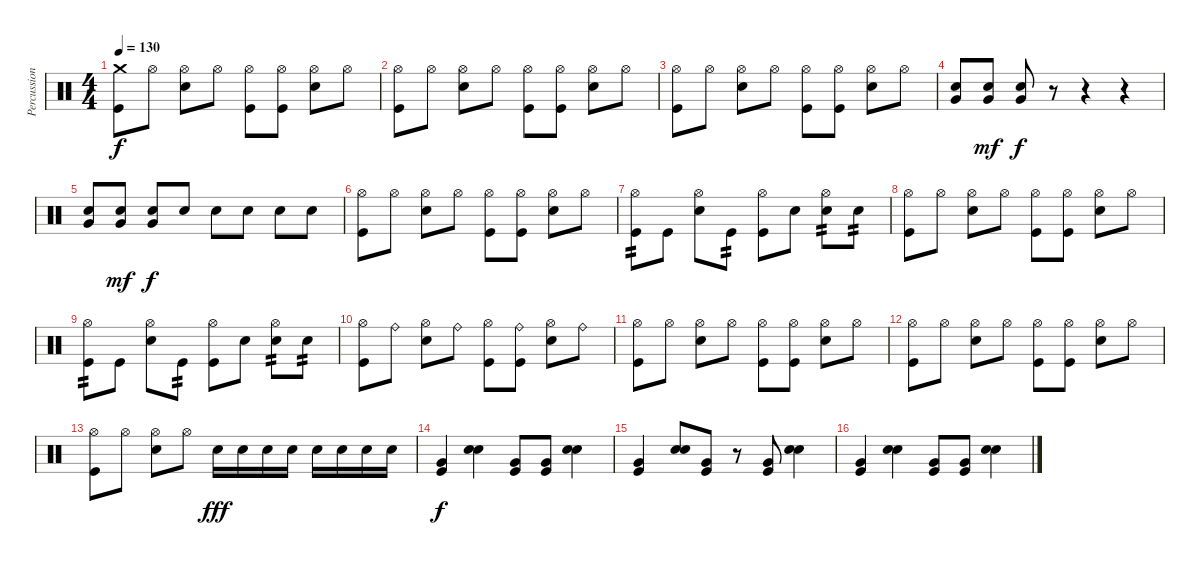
\track ("Percussion" "Percussion") {instrument percussion}
\staff {score}
\articulation defaults
\ts (4 4)
\tempo 130
\clef neutral
\ks c
("Crash medium (hit)" "Kick (hit)").8{dy f} "Hi-Hat (open)".8 ("Hi-Hat (open)" "Snare (hit) 2").8 "Hi-Hat (open)".8 ("Hi-Hat (open)" "Kick (hit)").8 ("Hi-Hat (open)" "Kick (hit)").8 ("Hi-Hat (open)" "Snare (hit) 2").8 "Hi-Hat (open)".8 |
("Hi-Hat (open)" "Kick (hit)").8 "Hi-Hat (open)".8 ("Hi-Hat (open)" "Snare (hit) 2").8 "Hi-Hat (open)".8 ("Hi-Hat (open)" "Kick (hit)").8 ("Hi-Hat (open)" "Kick (hit)").8 ("Hi-Hat (open)" "Snare (hit) 2").8 "Hi-Hat (open)".8 |
("Hi-Hat (open)" "Kick (hit)").8 "Hi-Hat (open)".8 ("Hi-Hat (open)" "Snare (hit) 2").8 "Hi-Hat (open)".8 ("Hi-Hat (open)" "Kick (hit)").8 ("Hi-Hat (open)" "Kick (hit)").8 ("Hi-Hat (open)" "Snare (hit) 2").8 "Hi-Hat (open)".8 |
("Very Low Tom (hit)" "Snare (hit) 2").8 ("Very Low Tom (hit)" "Snare (hit) 2").8{dy mf} ("Very Low Tom (hit)" "Snare (hit) 2").8{dy f} r.8 r.4 r.4 |
("Very Low Tom (hit)" "Snare (hit) 2").8 ("Very Low Tom (hit)" "Snare (hit) 2").8{dy mf} ("Very Low Tom (hit)" "Snare (hit) 2").8{dy f} "Snare (hit) 2".8 "Snare (hit) 2".8 "Snare (hit) 2".8 "Snare (hit) 2".8 "Snare (hit) 2".8 |
("Hi-Hat (open)" "Kick (hit)").8 "Hi-Hat (open)".8 ("Hi-Hat (open)" "Snare (hit) 2").8 "Hi-Hat (open)".8 ("Hi-Hat (open)" "Kick (hit)").8 ("Hi-Hat (open)" "Kick (hit)").8 ("Hi-Hat (open)" "Snare (hit) 2").8 "Hi-Hat (open)".8 |
("Hi-Hat (open)" "Kick (hit)").8{tp 2} "Kick (hit)".8 ("Hi-Hat (open)" "Snare (hit) 2").8 "Kick (hit)".8{tp 2} ("Hi-Hat (open)" "Kick (hit)").8 "Snare (hit) 2".8 ("Hi-Hat (open)" "Snare (hit) 2").8{tp 2} "Snare (hit) 2".8{tp 2} |
("Hi-Hat (open)" "Kick (hit)").8 "Hi-Hat (open)".8 ("Hi-Hat (open)" "Snare (hit) 2").8 "Hi-Hat (open)".8 ("Hi-Hat (open)" "Kick (hit)").8 ("Hi-Hat (open)" "Kick (hit)").8 ("Hi-Hat (open)" "Snare (hit) 2").8 "Hi-Hat (open)".8 |
("Hi-Hat (open)" "Kick (hit)").8{tp 2} "Kick (hit)".8 ("Hi-Hat (open)" "Snare (hit) 2").8 "Kick (hit)".8{tp 2} ("Hi-Hat (open)" "Kick (hit)").8 "Snare (hit) 2".8 ("Hi-Hat (open)" "Snare (hit) 2").8{tp 2} "Snare (hit) 2".8{tp 2} |
("Hi-Hat (open)" "Kick (hit)").8 "Ride (bell)".8 ("Hi-Hat (open)" "Snare (hit) 2").8 "Ride (bell)".8 ("Hi-Hat (open)" "Kick (hit)").8 ("Ride (bell)" "Kick (hit)").8 ("Hi-Hat (open)" "Snare (hit) 2").8 "Ride (bell)".8 |
("Hi-Hat (open)" "Kick (hit)").8 "Hi-Hat (open)".8 ("Hi-Hat (open)" "Snare (hit) 2").8 "Hi-Hat (open)".8 ("Hi-Hat (open)" "Kick (hit)").8 ("Hi-Hat (open)" "Kick (hit)").8 ("Hi-Hat (open)" "Snare (hit) 2").8 "Hi-Hat (open)".8 |
("Hi-Hat (open)" "Kick (hit)").8 "Hi-Hat (open)".8 ("Hi-Hat (open)" "Snare (hit) 2").8 "Hi-Hat (open)".8 ("Hi-Hat (open)" "Kick (hit)").8 ("Hi-Hat (open)" "Kick (hit)").8 ("Hi-Hat (open)" "Snare (hit) 2").8 "Hi-Hat (open)".8 |
("Hi-Hat (open)" "Kick (hit)").8 "Hi-Hat (open)".8 ("Hi-Hat (open)" "Snare (hit) 2").8 "Hi-Hat (open)".8 "Snare (hit) 2".16{dy fff} "Snare (hit) 2".16 "Snare (hit) 2".16 "Snare (hit) 2".16 "Snare (hit) 2".16 "Snare (hit) 2".16 "Snare (hit) 2".16 "Snare (hit) 2".16 |
("Kick (hit)" "Very Low Tom (hit)").4{dy f} ("Snare (hit) 2" "Hand Clap (hit)").4 ("Kick (hit)" "Very Low Tom (hit)").8 ("Kick (hit)" "Very Low Tom (hit)").8 ("Snare (hit) 2" "Hand Clap (hit)").4 |
("Kick (hit)" "Very Low Tom (hit)").4 ("Snare (hit) 2" "Hand Clap (hit)").8 ("Kick (hit)" "Very Low Tom (hit)").8 r.8 ("Kick (hit)" "Very Low Tom (hit)").8 ("Snare (hit) 2" "Hand Clap (hit)").4 |
("Kick (hit)" "Very Low Tom (hit)").4 ("Snare (hit) 2" "Hand Clap (hit)").4 ("Kick (hit)" "Very Low Tom (hit)").8 ("Kick (hit)" "Very Low Tom (hit)").8 ("Snare (hit) 2" "Hand Clap (hit)").4
